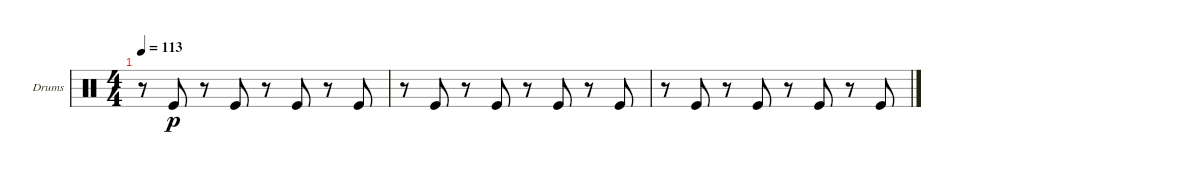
\bracketExtendMode nobrackets
\firstSystemTrackNameOrientation horizontal
\otherSystemsTrackNameOrientation horizontal
\defaultBarNumberDisplay FirstOfSystem
\track ("Drumkit" "Drums") {solo instrument percussion}
\staff {score}
\articulation defaults
\ts (4 4)
\tempo 113
\clef neutral
\scale
0.25
\ks c
r.8{dy p} "Kick (hit)".8 r.8 "Kick (hit)".8 r.8 "Kick (hit)".8 r.8 "Kick (hit)".8 |
\scale
0.25 r.8 "Kick (hit)".8 r.8 "Kick (hit)".8 r.8 "Kick (hit)".8 r.8 "Kick (hit)".8 |
\scale
0.25 r.8 "Kick (hit)".8 r.8 "Kick (hit)".8 r.8 "Kick (hit)".8 r.8 "Kick (hit)".8 |
\scale
0.25
